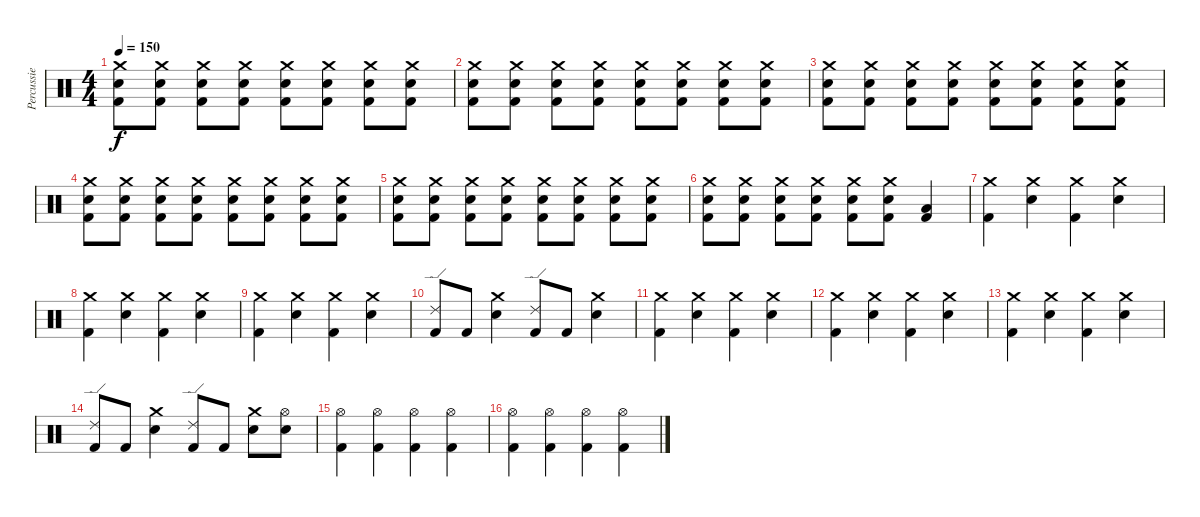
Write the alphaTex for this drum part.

\track ("Percussie" "Percussie") {instrument percussion}
\staff {score}
\articulation defaults
\ts (4 4)
\tempo 150
\clef neutral
\ks c
("Crash medium (hit)" "Snare (hit) 2" "Kick (hit) 2").8{dy f} ("Crash medium (hit)" "Snare (hit) 2" "Kick (hit) 2").8 ("Crash medium (hit)" "Snare (hit) 2" "Kick (hit) 2").8 ("Crash medium (hit)" "Snare (hit) 2" "Kick (hit) 2").8 ("Crash medium (hit)" "Snare (hit) 2" "Kick (hit) 2").8 ("Crash medium (hit)" "Snare (hit) 2" "Kick (hit) 2").8 ("Crash medium (hit)" "Snare (hit) 2" "Kick (hit) 2").8 ("Crash medium (hit)" "Snare (hit) 2" "Kick (hit) 2").8 |
("Crash medium (hit)" "Snare (hit) 2" "Kick (hit) 2").8 ("Crash medium (hit)" "Snare (hit) 2" "Kick (hit) 2").8 ("Crash medium (hit)" "Snare (hit) 2" "Kick (hit) 2").8 ("Crash medium (hit)" "Snare (hit) 2" "Kick (hit) 2").8 ("Crash medium (hit)" "Snare (hit) 2" "Kick (hit) 2").8 ("Crash medium (hit)" "Snare (hit) 2" "Kick (hit) 2").8 ("Crash medium (hit)" "Snare (hit) 2" "Kick (hit) 2").8 ("Crash medium (hit)" "Snare (hit) 2" "Kick (hit) 2").8 |
("Crash medium (hit)" "Snare (hit) 2" "Kick (hit) 2").8 ("Crash medium (hit)" "Snare (hit) 2" "Kick (hit) 2").8 ("Crash medium (hit)" "Snare (hit) 2" "Kick (hit) 2").8 ("Crash medium (hit)" "Snare (hit) 2" "Kick (hit) 2").8 ("Crash medium (hit)" "Snare (hit) 2" "Kick (hit) 2").8 ("Crash medium (hit)" "Snare (hit) 2" "Kick (hit) 2").8 ("Crash medium (hit)" "Snare (hit) 2" "Kick (hit) 2").8 ("Crash medium (hit)" "Snare (hit) 2" "Kick (hit) 2").8 |
("Crash medium (hit)" "Snare (hit) 2" "Kick (hit) 2").8 ("Crash medium (hit)" "Snare (hit) 2" "Kick (hit) 2").8 ("Crash medium (hit)" "Snare (hit) 2" "Kick (hit) 2").8 ("Crash medium (hit)" "Snare (hit) 2" "Kick (hit) 2").8 ("Crash medium (hit)" "Snare (hit) 2" "Kick (hit) 2").8 ("Crash medium (hit)" "Snare (hit) 2" "Kick (hit) 2").8 ("Crash medium (hit)" "Snare (hit) 2" "Kick (hit) 2").8 ("Crash medium (hit)" "Snare (hit) 2" "Kick (hit) 2").8 |
("Crash medium (hit)" "Snare (hit) 2" "Kick (hit) 2").8 ("Crash medium (hit)" "Snare (hit) 2" "Kick (hit) 2").8 ("Crash medium (hit)" "Snare (hit) 2" "Kick (hit) 2").8 ("Crash medium (hit)" "Snare (hit) 2" "Kick (hit) 2").8 ("Crash medium (hit)" "Snare (hit) 2" "Kick (hit) 2").8 ("Crash medium (hit)" "Snare (hit) 2" "Kick (hit) 2").8 ("Crash medium (hit)" "Snare (hit) 2" "Kick (hit) 2").8 ("Crash medium (hit)" "Snare (hit) 2" "Kick (hit) 2").8 |
("Crash medium (hit)" "Snare (hit) 2" "Kick (hit) 2").8 ("Crash medium (hit)" "Snare (hit) 2" "Kick (hit) 2").8 ("Crash medium (hit)" "Snare (hit) 2" "Kick (hit) 2").8 ("Crash medium (hit)" "Snare (hit) 2" "Kick (hit) 2").8 ("Crash medium (hit)" "Snare (hit) 2" "Kick (hit) 2").8 ("Crash medium (hit)" "Snare (hit) 2" "Kick (hit) 2").8 ("Low Tom (hit)" "Kick (hit) 2").4 |
("Crash medium (hit)" "Kick (hit) 2").4 ("Crash medium (hit)" "Snare (hit) 2").4 ("Crash medium (hit)" "Kick (hit) 2").4 ("Crash medium (hit)" "Snare (hit) 2").4 |
("Crash medium (hit)" "Kick (hit) 2").4 ("Crash medium (hit)" "Snare (hit) 2").4 ("Crash medium (hit)" "Kick (hit) 2").4 ("Crash medium (hit)" "Snare (hit) 2").4 |
("Crash medium (hit)" "Kick (hit) 2").4 ("Crash medium (hit)" "Snare (hit) 2").4 ("Crash medium (hit)" "Kick (hit) 2").4 ("Crash medium (hit)" "Snare (hit) 2").4 |
("Ride (edge) 2" "Kick (hit) 2").8 "Kick (hit) 2".8 ("Crash medium (hit)" "Snare (hit) 2").4 ("Ride (edge) 2" "Kick (hit) 2").8 "Kick (hit) 2".8 ("Crash medium (hit)" "Snare (hit) 2").4 |
("Crash medium (hit)" "Kick (hit) 2").4 ("Crash medium (hit)" "Snare (hit) 2").4 ("Crash medium (hit)" "Kick (hit) 2").4 ("Crash medium (hit)" "Snare (hit) 2").4 |
("Crash medium (hit)" "Kick (hit) 2").4 ("Crash medium (hit)" "Snare (hit) 2").4 ("Crash medium (hit)" "Kick (hit) 2").4 ("Crash medium (hit)" "Snare (hit) 2").4 |
("Crash medium (hit)" "Kick (hit) 2").4 ("Crash medium (hit)" "Snare (hit) 2").4 ("Crash medium (hit)" "Kick (hit) 2").4 ("Crash medium (hit)" "Snare (hit) 2").4 |
("Ride (edge) 2" "Kick (hit) 2").8 "Kick (hit) 2".8 ("Crash medium (hit)" "Snare (hit) 2").4 ("Ride (edge) 2" "Kick (hit) 2").8 "Kick (hit) 2".8 ("Crash medium (hit)" "Snare (hit) 2").8 ("Hi-Hat (open)" "Snare (hit) 2").8 |
("Hi-Hat (open)" "Kick (hit) 2").4 ("Hi-Hat (open)" "Kick (hit) 2").4 ("Hi-Hat (open)" "Kick (hit) 2").4 ("Hi-Hat (open)" "Kick (hit) 2").4 |
("Hi-Hat (open)" "Kick (hit) 2").4 ("Hi-Hat (open)" "Kick (hit) 2").4 ("Hi-Hat (open)" "Kick (hit) 2").4 ("Hi-Hat (open)" "Kick (hit) 2").4
